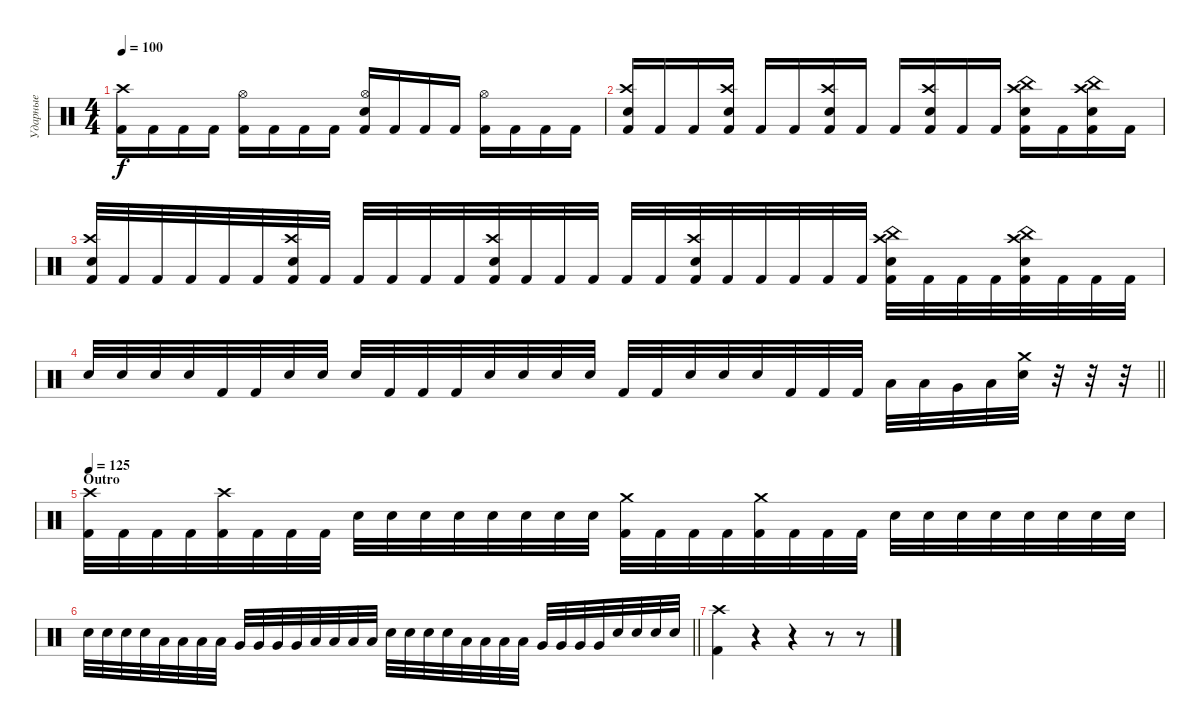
\track ("Ударные" "Ударные") {instrument percussion}
\staff {score}
\articulation defaults
\ts (4 4)
\tempo 100
\clef neutral
\ks c
("Kick (hit) 2" "Crash high (hit)").16{dy f} "Kick (hit) 2".16 "Kick (hit) 2".16 "Kick (hit) 2".16 ("Kick (hit) 2" "Hi-Hat (open)").16 "Kick (hit) 2".16 "Kick (hit) 2".16 "Kick (hit) 2".16 ("Kick (hit) 2" "Electric Snare (hit)" "Hi-Hat (open)").16 "Kick (hit) 2".16 "Kick (hit) 2".16 "Kick (hit) 2".16 ("Kick (hit) 2" "Hi-Hat (open)").16 "Kick (hit) 2".16 "Kick (hit) 2".16 "Kick (hit) 2".16 |
("Kick (hit) 2" "Electric Snare (hit)" "Crash high (hit)").16 "Kick (hit) 2".16 "Kick (hit) 2".16 ("Kick (hit) 2" "Electric Snare (hit)" "Crash high (hit)").16 "Kick (hit) 2".16 "Kick (hit) 2".16 ("Kick (hit) 2" "Electric Snare (hit)" "Crash high (hit)").16 "Kick (hit) 2".16 "Kick (hit) 2".16 ("Kick (hit) 2" "Electric Snare (hit)" "Crash high (hit)").16 "Kick (hit) 2".16 "Kick (hit) 2".16 ("Kick (hit) 2" "Electric Snare (hit)" "Crash high (hit)" "China (hit)").16 "Kick (hit) 2".16 ("Kick (hit) 2" "Electric Snare (hit)" "Crash high (hit)" "China (hit)").16 "Kick (hit) 2".16 |
("Kick (hit) 2" "Electric Snare (hit)" "Crash high (hit)").32 "Kick (hit) 2".32 "Kick (hit) 2".32 "Kick (hit) 2".32 "Kick (hit) 2".32 "Kick (hit) 2".32 ("Kick (hit) 2" "Electric Snare (hit)" "Crash high (hit)").32 "Kick (hit) 2".32 "Kick (hit) 2".32 "Kick (hit) 2".32 "Kick (hit) 2".32 "Kick (hit) 2".32 ("Kick (hit) 2" "Electric Snare (hit)" "Crash high (hit)").32 "Kick (hit) 2".32 "Kick (hit) 2".32 "Kick (hit) 2".32 "Kick (hit) 2".32 "Kick (hit) 2".32 ("Kick (hit) 2" "Electric Snare (hit)" "Crash high (hit)").32 "Kick (hit) 2".32 "Kick (hit) 2".32 "Kick (hit) 2".32 "Kick (hit) 2".32 "Kick (hit) 2".32 ("Kick (hit) 2" "Electric Snare (hit)" "Crash high (hit)" "China (hit)").32 "Kick (hit) 2".32 "Kick (hit) 2".32 "Kick (hit) 2".32 ("Kick (hit) 2" "Electric Snare (hit)" "Crash high (hit)" "China (hit)").32 "Kick (hit) 2".32 "Kick (hit) 2".32 "Kick (hit) 2".32 |
\barLineRight lightlight "Electric Snare (hit)".32 "Electric Snare (hit)".32 "Electric Snare (hit)".32 "Electric Snare (hit)".32 "Kick (hit) 2".32 "Kick (hit) 2".32 "Electric Snare (hit)".32 "Electric Snare (hit)".32 "Electric Snare (hit)".32 "Kick (hit) 2".32 "Kick (hit) 2".32 "Kick (hit) 2".32 "Electric Snare (hit)".32 "Electric Snare (hit)".32 "Electric Snare (hit)".32 "Electric Snare (hit)".32 "Kick (hit) 2".32 "Kick (hit) 2".32 "Electric Snare (hit)".32 "Electric Snare (hit)".32 "Electric Snare (hit)".32 "Kick (hit) 2".32 "Kick (hit) 2".32 "Kick (hit) 2".32 "Low Tom (hit)".32 "Low Tom (hit)".32 "Very Low Tom (hit)".32 "Low Floor Tom (hit)".32
("Electric Snare (hit)" "Crash medium (hit)").32 r.32 r.32 r.32 |
\section ("" "Outro")
\tempo 125
("Crash high (hit)" "Kick (hit) 2").32 "Kick (hit) 2".32 "Kick (hit) 2".32 "Kick (hit) 2".32 ("Crash high (hit)" "Kick (hit) 2").32 "Kick (hit) 2".32 "Kick (hit) 2".32 "Kick (hit) 2".32 "Electric Snare (hit)".32 "Electric Snare (hit)".32 "Electric Snare (hit)".32 "Electric Snare (hit)".32 "Electric Snare (hit)".32 "Electric Snare (hit)".32 "Electric Snare (hit)".32 "Electric Snare (hit)".32 ("Crash medium (hit)" "Kick (hit) 2").32 "Kick (hit) 2".32 "Kick (hit) 2".32 "Kick (hit) 2".32 ("Crash medium (hit)" "Kick (hit) 2").32 "Kick (hit) 2".32 "Kick (hit) 2".32 "Kick (hit) 2".32 "Electric Snare (hit)".32 "Electric Snare (hit)".32 "Electric Snare (hit)".32 "Electric Snare (hit)".32 "Electric Snare (hit)".32 "Electric Snare (hit)".32 "Electric Snare (hit)".32 "Electric Snare (hit)".32 |
\barLineRight lightlight "Electric Snare (hit)".32 "Electric Snare (hit)".32 "Electric Snare (hit)".32 "Electric Snare (hit)".32 "Low Tom (hit)".32 "Low Tom (hit)".32 "Low Tom (hit)".32 "Low Tom (hit)".32 "Very Low Tom (hit)".32 "Very Low Tom (hit)".32 "Very Low Tom (hit)".32 "Very Low Tom (hit)".32 "Low Floor Tom (hit)".32 "Low Floor Tom (hit)".32 "Low Floor Tom (hit)".32 "Low Floor Tom (hit)".32 "Electric Snare (hit)".32 "Electric Snare (hit)".32 "Electric Snare (hit)".32 "Electric Snare (hit)".32 "Low Tom (hit)".32 "Low Tom (hit)".32 "Low Tom (hit)".32 "Low Tom (hit)".32 "Very Low Tom (hit)".32 "Very Low Tom (hit)".32 "Very Low Tom (hit)".32 "Very Low Tom (hit)".32 "Electric Snare (hit)".32 "Electric Snare (hit)".32 "Electric Snare (hit)".32 "Electric Snare (hit)".32
|
("Kick (hit) 2" "Crash high (hit)").4 r.4{volume 2} r.4 r.8 r.8
